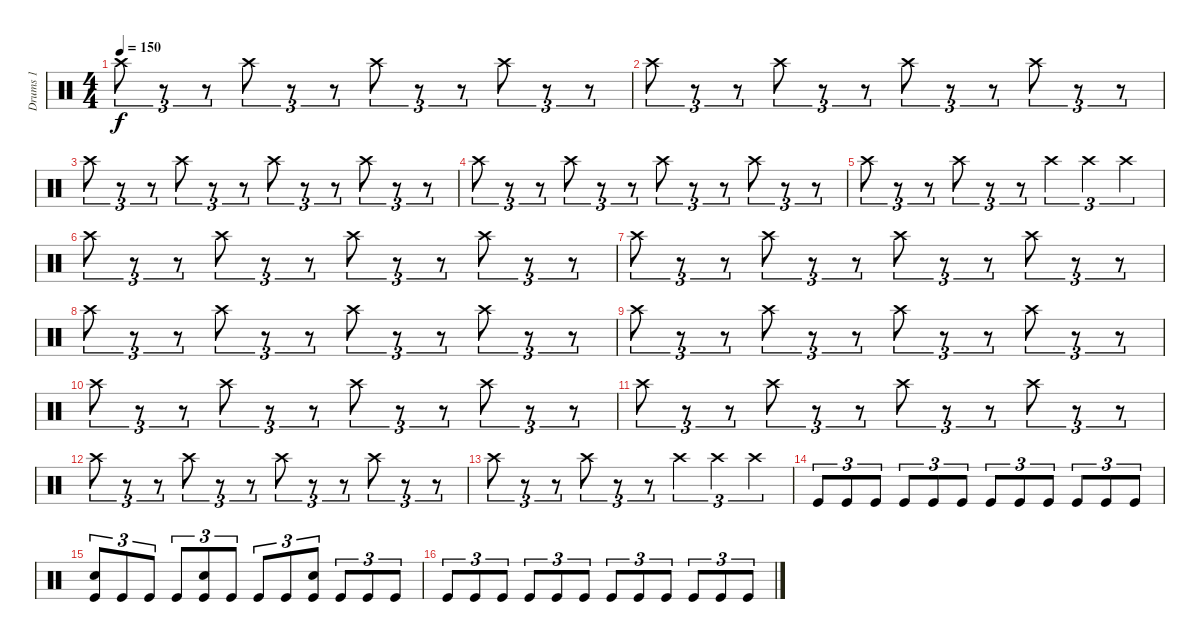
\track ("Drums 1" "Drums 1") {instrument percussion}
\staff {score}
\articulation defaults
\ts (4 4)
\tempo 150
\clef neutral
\ks c "Crash high (hit)".8{tu (3 2) dy f}
r.8{tu (3 2)} r.8{tu (3 2)} "Crash high (hit)".8{tu (3 2)} r.8{tu (3 2)} r.8{tu (3 2)} "Crash high (hit)".8{tu (3 2)} r.8{tu (3 2)} r.8{tu (3 2)} "Crash high (hit)".8{tu (3 2)} r.8{tu (3 2)} r.8{tu (3 2)} |
"Crash high (hit)".8{tu (3 2)} r.8{tu (3 2)} r.8{tu (3 2)} "Crash high (hit)".8{tu (3 2)} r.8{tu (3 2)} r.8{tu (3 2)} "Crash high (hit)".8{tu (3 2)} r.8{tu (3 2)} r.8{tu (3 2)} "Crash high (hit)".8{tu (3 2)} r.8{tu (3 2)} r.8{tu (3 2)} |
"Crash high (hit)".8{tu (3 2)} r.8{tu (3 2)} r.8{tu (3 2)} "Crash high (hit)".8{tu (3 2)} r.8{tu (3 2)} r.8{tu (3 2)} "Crash high (hit)".8{tu (3 2)} r.8{tu (3 2)} r.8{tu (3 2)} "Crash high (hit)".8{tu (3 2)} r.8{tu (3 2)} r.8{tu (3 2)} |
"Crash high (hit)".8{tu (3 2)} r.8{tu (3 2)} r.8{tu (3 2)} "Crash high (hit)".8{tu (3 2)} r.8{tu (3 2)} r.8{tu (3 2)} "Crash high (hit)".8{tu (3 2)} r.8{tu (3 2)} r.8{tu (3 2)} "Crash high (hit)".8{tu (3 2)} r.8{tu (3 2)} r.8{tu (3 2)} |
"Crash high (hit)".8{tu (3 2)} r.8{tu (3 2)} r.8{tu (3 2)} "Crash high (hit)".8{tu (3 2)} r.8{tu (3 2)} r.8{tu (3 2)} "Crash high (hit)".4{tu (3 2)} "Crash high (hit)".4{tu (3 2)} "Crash high (hit)".4{tu (3 2)} |
"Crash high (hit)".8{tu (3 2)} r.8{tu (3 2)} r.8{tu (3 2)} "Crash high (hit)".8{tu (3 2)} r.8{tu (3 2)} r.8{tu (3 2)} "Crash high (hit)".8{tu (3 2)} r.8{tu (3 2)} r.8{tu (3 2)} "Crash high (hit)".8{tu (3 2)} r.8{tu (3 2)} r.8{tu (3 2)} |
"Crash high (hit)".8{tu (3 2)} r.8{tu (3 2)} r.8{tu (3 2)} "Crash high (hit)".8{tu (3 2)} r.8{tu (3 2)} r.8{tu (3 2)} "Crash high (hit)".8{tu (3 2)} r.8{tu (3 2)} r.8{tu (3 2)} "Crash high (hit)".8{tu (3 2)} r.8{tu (3 2)} r.8{tu (3 2)} |
"Crash high (hit)".8{tu (3 2)} r.8{tu (3 2)} r.8{tu (3 2)} "Crash high (hit)".8{tu (3 2)} r.8{tu (3 2)} r.8{tu (3 2)} "Crash high (hit)".8{tu (3 2)} r.8{tu (3 2)} r.8{tu (3 2)} "Crash high (hit)".8{tu (3 2)} r.8{tu (3 2)} r.8{tu (3 2)} |
"Crash high (hit)".8{tu (3 2)} r.8{tu (3 2)} r.8{tu (3 2)} "Crash high (hit)".8{tu (3 2)} r.8{tu (3 2)} r.8{tu (3 2)} "Crash high (hit)".8{tu (3 2)} r.8{tu (3 2)} r.8{tu (3 2)} "Crash high (hit)".8{tu (3 2)} r.8{tu (3 2)} r.8{tu (3 2)} |
"Crash high (hit)".8{tu (3 2)} r.8{tu (3 2)} r.8{tu (3 2)} "Crash high (hit)".8{tu (3 2)} r.8{tu (3 2)} r.8{tu (3 2)} "Crash high (hit)".8{tu (3 2)} r.8{tu (3 2)} r.8{tu (3 2)} "Crash high (hit)".8{tu (3 2)} r.8{tu (3 2)} r.8{tu (3 2)} |
"Crash high (hit)".8{tu (3 2)} r.8{tu (3 2)} r.8{tu (3 2)} "Crash high (hit)".8{tu (3 2)} r.8{tu (3 2)} r.8{tu (3 2)} "Crash high (hit)".8{tu (3 2)} r.8{tu (3 2)} r.8{tu (3 2)} "Crash high (hit)".8{tu (3 2)} r.8{tu (3 2)} r.8{tu (3 2)} |
"Crash high (hit)".8{tu (3 2)} r.8{tu (3 2)} r.8{tu (3 2)} "Crash high (hit)".8{tu (3 2)} r.8{tu (3 2)} r.8{tu (3 2)} "Crash high (hit)".8{tu (3 2)} r.8{tu (3 2)} r.8{tu (3 2)} "Crash high (hit)".8{tu (3 2)} r.8{tu (3 2)} r.8{tu (3 2)} |
"Crash high (hit)".8{tu (3 2)} r.8{tu (3 2)} r.8{tu (3 2)} "Crash high (hit)".8{tu (3 2)} r.8{tu (3 2)} r.8{tu (3 2)} "Crash high (hit)".4{tu (3 2)} "Crash high (hit)".4{tu (3 2)} "Crash high (hit)".4{tu (3 2)} |
"Kick (hit)".8{tu (3 2)} "Kick (hit)".8{tu (3 2)} "Kick (hit)".8{tu (3 2)} "Kick (hit)".8{tu (3 2)} "Kick (hit)".8{tu (3 2)} "Kick (hit)".8{tu (3 2)} "Kick (hit)".8{tu (3 2)} "Kick (hit)".8{tu (3 2)} "Kick (hit)".8{tu (3 2)} "Kick (hit)".8{tu (3 2)} "Kick (hit)".8{tu (3 2)} "Kick (hit)".8{tu (3 2)} |
("Snare (hit) 2" "Kick (hit)").8{tu (3 2)} "Kick (hit)".8{tu (3 2)} "Kick (hit)".8{tu (3 2)} "Kick (hit)".8{tu (3 2)} ("Snare (hit) 2" "Kick (hit)").8{tu (3 2)} "Kick (hit)".8{tu (3 2)} "Kick (hit)".8{tu (3 2)} "Kick (hit)".8{tu (3 2)} ("Snare (hit) 2" "Kick (hit)").8{tu (3 2)} "Kick (hit)".8{tu (3 2)} "Kick (hit)".8{tu (3 2)} "Kick (hit)".8{tu (3 2)} |
"Kick (hit)".8{tu (3 2)} "Kick (hit)".8{tu (3 2)} "Kick (hit)".8{tu (3 2)} "Kick (hit)".8{tu (3 2)} "Kick (hit)".8{tu (3 2)} "Kick (hit)".8{tu (3 2)} "Kick (hit)".8{tu (3 2)} "Kick (hit)".8{tu (3 2)} "Kick (hit)".8{tu (3 2)} "Kick (hit)".8{tu (3 2)} "Kick (hit)".8{tu (3 2)} "Kick (hit)".8{tu (3 2)}
